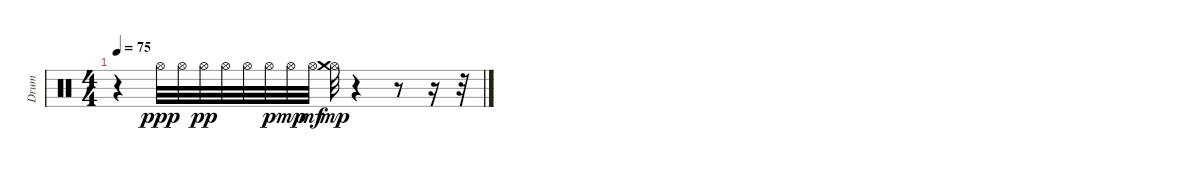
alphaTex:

\track ("Drum" "Drum") {instrument percussion}
\staff {score}
\articulation defaults
\ts (4 4)
\tempo 75
\clef neutral
\ks c
r.4{dy f} "Hi-Hat (open)".32{dy ppp} "Hi-Hat (open)".32 "Hi-Hat (open)".32{dy pp} "Hi-Hat (open)".32 "Hi-Hat (open)".32 "Hi-Hat (open)".32{dy p} "Hi-Hat (open)".32{dy mp} "Hi-Hat (open)".32{dy mf} ("Hi-Hat (open)" "Crash medium (hit)").32{dy mp} r.4 r.8 r.16 r.32
